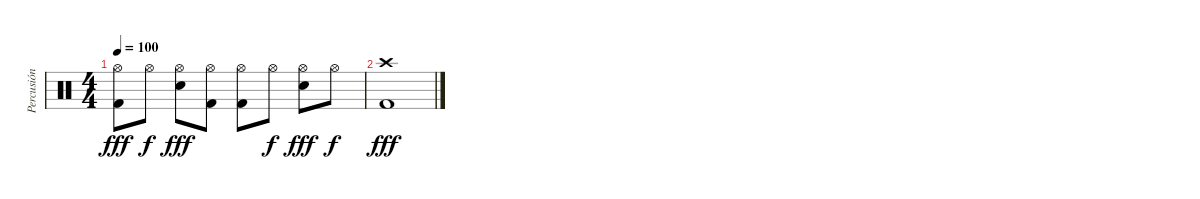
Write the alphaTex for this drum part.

\track ("Percusión" "Percusión") {instrument percussion}
\staff {score}
\articulation defaults
\ts (4 4)
\tempo 100
\clef neutral
\ks c
("Hi-Hat (open)" "Kick (hit) 2").8{dy fff} "Hi-Hat (open)".8{dy f} ("Hi-Hat (open)" "Snare (hit) 2").8{dy fff} ("Hi-Hat (open)" "Kick (hit) 2").8 ("Hi-Hat (open)" "Kick (hit) 2").8 "Hi-Hat (open)".8{dy f} ("Hi-Hat (open)" "Snare (hit) 2").8{dy fff} "Hi-Hat (open)".8{dy f} |
("Crash high (hit)" "Kick (hit) 2").1{dy fff}
